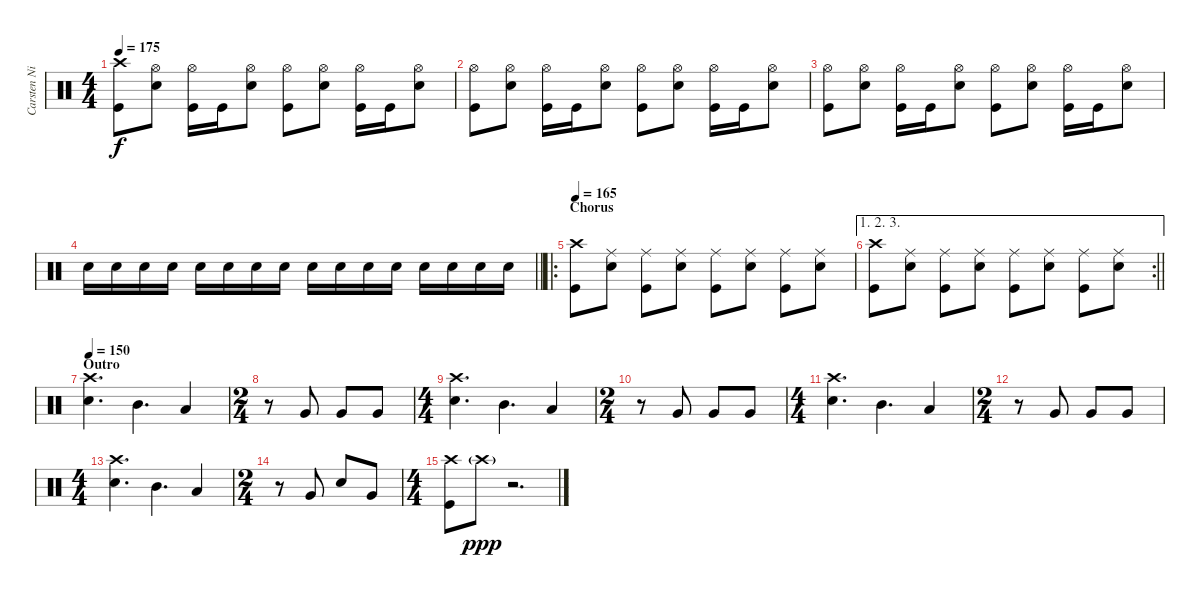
\track ("Carsten Nielsen" "Carsten Ni") {instrument percussion}
\staff {score}
\articulation defaults
\ts (4 4)
\tempo 175
\clef neutral
\ks c
("Crash high (hit)" "Kick (hit)").8{dy f} ("Hi-Hat (open)" "Electric Snare (hit)").8 ("Hi-Hat (open)" "Kick (hit)").16 "Kick (hit)".16 ("Hi-Hat (open)" "Electric Snare (hit)").8 ("Hi-Hat (open)" "Kick (hit)").8 ("Hi-Hat (open)" "Electric Snare (hit)").8 ("Hi-Hat (open)" "Kick (hit)").16 "Kick (hit)".16 ("Hi-Hat (open)" "Electric Snare (hit)").8 |
("Hi-Hat (open)" "Kick (hit)").8 ("Hi-Hat (open)" "Electric Snare (hit)").8 ("Hi-Hat (open)" "Kick (hit)").16 "Kick (hit)".16 ("Hi-Hat (open)" "Electric Snare (hit)").8 ("Hi-Hat (open)" "Kick (hit)").8 ("Hi-Hat (open)" "Electric Snare (hit)").8 ("Hi-Hat (open)" "Kick (hit)").16 "Kick (hit)".16 ("Hi-Hat (open)" "Electric Snare (hit)").8 |
("Hi-Hat (open)" "Kick (hit)").8 ("Hi-Hat (open)" "Electric Snare (hit)").8 ("Hi-Hat (open)" "Kick (hit)").16 "Kick (hit)".16 ("Hi-Hat (open)" "Electric Snare (hit)").8 ("Hi-Hat (open)" "Kick (hit)").8 ("Hi-Hat (open)" "Electric Snare (hit)").8 ("Hi-Hat (open)" "Kick (hit)").16 "Kick (hit)".16 ("Hi-Hat (open)" "Electric Snare (hit)").8 |
\barLineRight lightlight "Electric Snare (hit)".16 "Electric Snare (hit)".16 "Electric Snare (hit)".16 "Electric Snare (hit)".16 "Electric Snare (hit)".16 "Electric Snare (hit)".16 "Electric Snare (hit)".16 "Electric Snare (hit)".16 "Electric Snare (hit)".16 "Electric Snare (hit)".16 "Electric Snare (hit)".16 "Electric Snare (hit)".16 "Electric Snare (hit)".16 "Electric Snare (hit)".16 "Electric Snare (hit)".16 "Electric Snare (hit)".16
|
\ro
\section ("" "Chorus")
\tempo 165
("Crash high (hit)" "Kick (hit)").8 ("Ride (middle)" "Electric Snare (hit)").8 ("Ride (middle)" "Kick (hit)").8 ("Ride (middle)" "Electric Snare (hit)").8 ("Ride (middle)" "Kick (hit)").8 ("Ride (middle)" "Electric Snare (hit)").8 ("Ride (middle)" "Kick (hit)").8 ("Ride (middle)" "Electric Snare (hit)").8 |
\ae (1 2 3)
\rc 2
\barLineRight lightlight
("Crash high (hit)" "Kick (hit)").8 ("Ride (middle)" "Electric Snare (hit)").8 ("Ride (middle)" "Kick (hit)").8 ("Ride (middle)" "Electric Snare (hit)").8 ("Ride (middle)" "Kick (hit)").8 ("Ride (middle)" "Electric Snare (hit)").8 ("Ride (middle)" "Kick (hit)").8 ("Ride (middle)" "Electric Snare (hit)").8 |
\section ("" "Outro")
\tempo 150
("Crash high (hit)" "Electric Snare (hit)").4{d} "Mid Tom (hit)".4{d} "Low Tom (hit)".4 |
\ts (2 4)
r.8 "Very Low Tom (hit)".8 "Very Low Tom (hit)".8 "Very Low Tom (hit)".8 |
\ts (4 4)
("Crash high (hit)" "Electric Snare (hit)").4{d} "Mid Tom (hit)".4{d} "Low Tom (hit)".4 |
\ts (2 4)
r.8 "Very Low Tom (hit)".8 "Very Low Tom (hit)".8 "Very Low Tom (hit)".8 |
\ts (4 4)
("Crash high (hit)" "Electric Snare (hit)").4{d} "Mid Tom (hit)".4{d} "Low Tom (hit)".4 |
\ts (2 4)
r.8 "Very Low Tom (hit)".8 "Very Low Tom (hit)".8 "Very Low Tom (hit)".8 |
\ts (4 4)
("Crash high (hit)" "Electric Snare (hit)").4{d} "Mid Tom (hit)".4{d} "Low Tom (hit)".4 |
\ts (2 4)
r.8 "Very Low Tom (hit)".8 "Electric Snare (hit)".8 "Very Low Tom (hit)".8 |
\ts (4 4)
("Crash high (hit)" "Kick (hit)").8 "Crash high (hit)"{g}.8{dy ppp} r.2{d}
